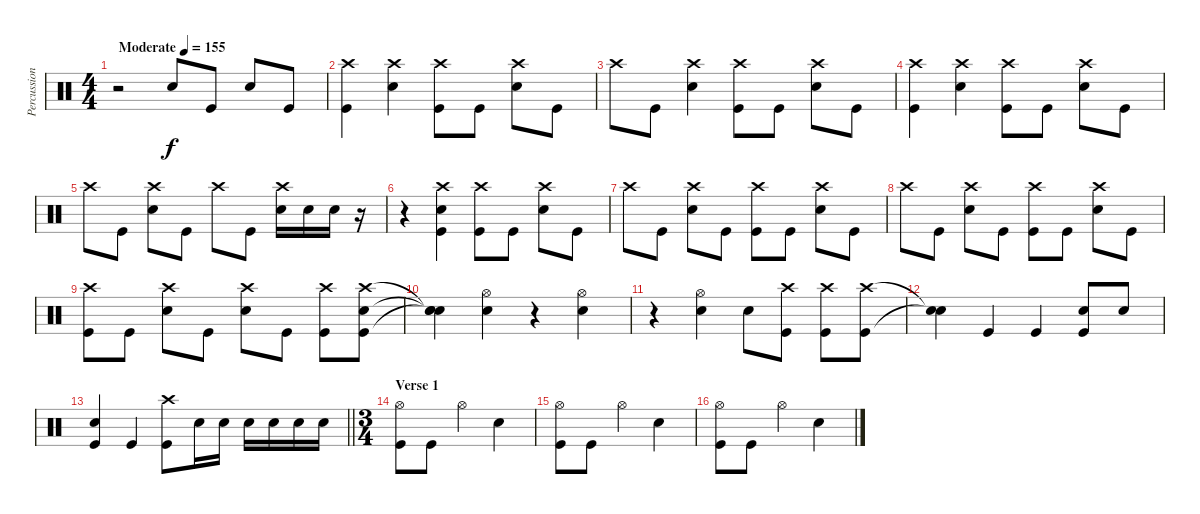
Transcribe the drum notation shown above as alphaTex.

\track ("Percussion" "Percussion") {instrument percussion}
\staff {score}
\articulation defaults
\ts (4 4)
\tempo (155 "Moderate")
\clef neutral
\ks c
r.2{dy f} "Snare (hit) 2".8 "Kick (hit)".8 "Snare (hit) 2".8 "Kick (hit)".8 |
("Crash high (hit)" "Kick (hit)").4 ("Crash high (hit)" "Snare (hit) 2").4 ("Crash high (hit)" "Kick (hit)").8 "Kick (hit)".8 ("Crash high (hit)" "Snare (hit) 2").8 "Kick (hit)".8 |
"Crash high (hit)".8 "Kick (hit)".8 ("Crash high (hit)" "Snare (hit) 2").4 ("Crash high (hit)" "Kick (hit)").8 "Kick (hit)".8 ("Crash high (hit)" "Snare (hit) 2").8 "Kick (hit)".8 |
("Crash high (hit)" "Kick (hit)").4 ("Crash high (hit)" "Snare (hit) 2").4 ("Crash high (hit)" "Kick (hit)").8 "Kick (hit)".8 ("Crash high (hit)" "Snare (hit) 2").8 "Kick (hit)".8 |
"Crash high (hit)".8 "Kick (hit)".8 ("Crash high (hit)" "Snare (hit) 2").8 "Kick (hit)".8 "Crash high (hit)".8 "Kick (hit)".8 ("Crash high (hit)" "Snare (hit) 2").16 "Snare (hit) 2".16 "Snare (hit) 2".16 r.16 |
r.4 ("Crash high (hit)" "Snare (hit) 2" "Kick (hit)").4 ("Crash high (hit)" "Kick (hit)").8 "Kick (hit)".8 ("Crash high (hit)" "Snare (hit) 2").8 "Kick (hit)".8 |
"Crash high (hit)".8 "Kick (hit)".8 ("Crash high (hit)" "Snare (hit) 2").8 "Kick (hit)".8 ("Crash high (hit)" "Kick (hit)").8 "Kick (hit)".8 ("Crash high (hit)" "Snare (hit) 2").8 "Kick (hit)".8 |
"Crash high (hit)".8 "Kick (hit)".8 ("Crash high (hit)" "Snare (hit) 2").8 "Kick (hit)".8 ("Crash high (hit)" "Kick (hit)").8 "Kick (hit)".8 ("Crash high (hit)" "Snare (hit) 2").8 "Kick (hit)".8 |
("Crash high (hit)" "Kick (hit)").8 "Kick (hit)".8 ("Crash high (hit)" "Snare (hit) 2").8 "Kick (hit)".8 ("Crash high (hit)" "Snare (hit) 2").8 "Kick (hit)".8 ("Crash high (hit)" "Kick (hit)").8 ("Crash high (hit)" "Snare (hit) 2" "Kick (hit)").8 |
("Snare (hit)"{t} "Snare (hit)"{t} "Snare (hit)"{t}).4 ("Hi-Hat (open)" "Snare (hit) 2").4 r.4 ("Hi-Hat (open)" "Snare (hit) 2").4 |
r.4 ("Hi-Hat (open)" "Snare (hit) 2").4 "Snare (hit) 2".8 ("Crash high (hit)" "Kick (hit)").8 ("Crash high (hit)" "Kick (hit)").8 ("Crash high (hit)" "Kick (hit)").8 |
("Snare (hit)"{t} "Snare (hit)"{t}).4 "Kick (hit)".4 "Kick (hit)".4 ("Snare (hit) 2" "Kick (hit)").8 "Snare (hit) 2".8 |
\barLineRight lightlight
("Snare (hit) 2" "Kick (hit)").4 "Kick (hit)".4 ("Crash high (hit)" "Kick (hit)").8 "Snare (hit) 2".16 "Snare (hit) 2".16 "Snare (hit) 2".16 "Snare (hit) 2".16 "Snare (hit) 2".16 "Snare (hit) 2".16 |
\ts (3 4)
\section ("" "Verse 1")
("Hi-Hat (open)" "Kick (hit)").8 "Kick (hit)".8 "Hi-Hat (open)".4 "Snare (hit) 2".4 |
("Hi-Hat (open)" "Kick (hit)").8 "Kick (hit)".8 "Hi-Hat (open)".4 "Snare (hit) 2".4 |
("Hi-Hat (open)" "Kick (hit)").8 "Kick (hit)".8 "Hi-Hat (open)".4 "Snare (hit) 2".4
